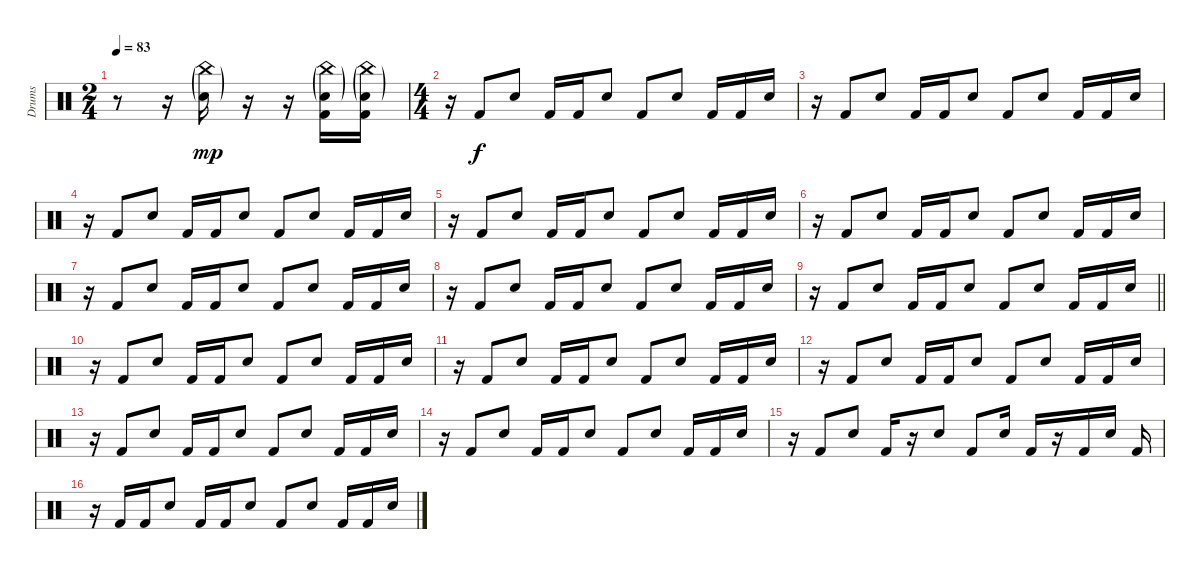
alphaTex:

\track ("Drums" "Drums") {instrument percussion}
\staff {score}
\articulation defaults
\ts (2 4)
\section ("" "")
\tempo 83
\clef neutral
\ks c
r.8{dy mp volume 6} r.16 ("China (hit)"{g} "Electric Snare (hit)"{g}).16 r.16 r.16 ("China (hit)"{g} "Electric Snare (hit)"{g} "Kick (hit) 2").16 ("China (hit)"{g} "Electric Snare (hit)"{g} "Kick (hit) 2").16 |
\ts (4 4)
r.16{volume 13} "Kick (hit) 2".8{dy f} "Electric Snare (hit)".8 "Kick (hit) 2".16 "Kick (hit) 2".16 "Electric Snare (hit)".8 "Kick (hit) 2".8 "Electric Snare (hit)".8 "Kick (hit) 2".16 "Kick (hit) 2".16 "Electric Snare (hit)".16 |
r.16 "Kick (hit) 2".8 "Electric Snare (hit)".8 "Kick (hit) 2".16 "Kick (hit) 2".16 "Electric Snare (hit)".8 "Kick (hit) 2".8 "Electric Snare (hit)".8 "Kick (hit) 2".16 "Kick (hit) 2".16 "Electric Snare (hit)".16 |
r.16{volume 13} "Kick (hit) 2".8 "Electric Snare (hit)".8 "Kick (hit) 2".16 "Kick (hit) 2".16 "Electric Snare (hit)".8 "Kick (hit) 2".8 "Electric Snare (hit)".8 "Kick (hit) 2".16 "Kick (hit) 2".16 "Electric Snare (hit)".16 |
r.16{volume 13} "Kick (hit) 2".8 "Electric Snare (hit)".8 "Kick (hit) 2".16 "Kick (hit) 2".16 "Electric Snare (hit)".8 "Kick (hit) 2".8 "Electric Snare (hit)".8 "Kick (hit) 2".16 "Kick (hit) 2".16 "Electric Snare (hit)".16 |
r.16{volume 13} "Kick (hit) 2".8 "Electric Snare (hit)".8 "Kick (hit) 2".16 "Kick (hit) 2".16 "Electric Snare (hit)".8 "Kick (hit) 2".8 "Electric Snare (hit)".8 "Kick (hit) 2".16 "Kick (hit) 2".16 "Electric Snare (hit)".16 |
r.16{volume 13} "Kick (hit) 2".8 "Electric Snare (hit)".8 "Kick (hit) 2".16 "Kick (hit) 2".16 "Electric Snare (hit)".8 "Kick (hit) 2".8 "Electric Snare (hit)".8 "Kick (hit) 2".16 "Kick (hit) 2".16 "Electric Snare (hit)".16 |
r.16{volume 13} "Kick (hit) 2".8 "Electric Snare (hit)".8 "Kick (hit) 2".16 "Kick (hit) 2".16 "Electric Snare (hit)".8 "Kick (hit) 2".8 "Electric Snare (hit)".8 "Kick (hit) 2".16 "Kick (hit) 2".16 "Electric Snare (hit)".16 |
\barLineRight lightlight
r.16{volume 13} "Kick (hit) 2".8 "Electric Snare (hit)".8 "Kick (hit) 2".16 "Kick (hit) 2".16 "Electric Snare (hit)".8 "Kick (hit) 2".8 "Electric Snare (hit)".8 "Kick (hit) 2".16 "Kick (hit) 2".16 "Electric Snare (hit)".16 |
\section ("" "")
r.16{volume 13} "Kick (hit) 2".8 "Electric Snare (hit)".8 "Kick (hit) 2".16 "Kick (hit) 2".16 "Electric Snare (hit)".8 "Kick (hit) 2".8 "Electric Snare (hit)".8 "Kick (hit) 2".16 "Kick (hit) 2".16 "Electric Snare (hit)".16 |
r.16{volume 13} "Kick (hit) 2".8 "Electric Snare (hit)".8 "Kick (hit) 2".16 "Kick (hit) 2".16 "Electric Snare (hit)".8 "Kick (hit) 2".8 "Electric Snare (hit)".8 "Kick (hit) 2".16 "Kick (hit) 2".16 "Electric Snare (hit)".16 |
r.16{volume 13} "Kick (hit) 2".8 "Electric Snare (hit)".8 "Kick (hit) 2".16 "Kick (hit) 2".16 "Electric Snare (hit)".8 "Kick (hit) 2".8 "Electric Snare (hit)".8 "Kick (hit) 2".16 "Kick (hit) 2".16 "Electric Snare (hit)".16 |
r.16{volume 13} "Kick (hit) 2".8 "Electric Snare (hit)".8 "Kick (hit) 2".16 "Kick (hit) 2".16 "Electric Snare (hit)".8 "Kick (hit) 2".8 "Electric Snare (hit)".8 "Kick (hit) 2".16 "Kick (hit) 2".16 "Electric Snare (hit)".16 |
r.16{volume 13} "Kick (hit) 2".8 "Electric Snare (hit)".8 "Kick (hit) 2".16 "Kick (hit) 2".16 "Electric Snare (hit)".8 "Kick (hit) 2".8 "Electric Snare (hit)".8 "Kick (hit) 2".16 "Kick (hit) 2".16 "Electric Snare (hit)".16 |
r.16 "Kick (hit) 2".8 "Electric Snare (hit)".8 "Kick (hit) 2".16 r.16 "Electric Snare (hit)".8 "Kick (hit) 2".8 "Electric Snare (hit)".16 "Kick (hit) 2".16 r.16 "Kick (hit) 2".16 "Electric Snare (hit)".16 "Kick (hit) 2".16 |
r.16 "Kick (hit) 2".16{volume 13} "Kick (hit) 2".16 "Electric Snare (hit)".8 "Kick (hit) 2".16 "Kick (hit) 2".16 "Electric Snare (hit)".8 "Kick (hit) 2".8 "Electric Snare (hit)".8 "Kick (hit) 2".16 "Kick (hit) 2".16 "Electric Snare (hit)".16
